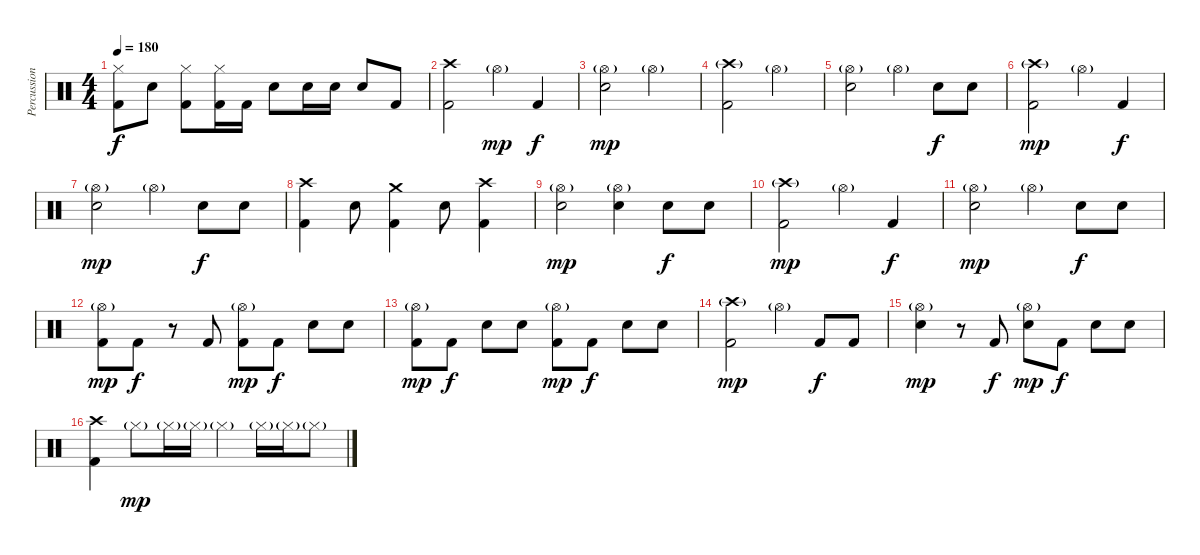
\track ("Percussion" "Percussion") {instrument percussion}
\staff {score}
\articulation defaults
\ts (4 4)
\tempo 180
\clef neutral
\ks c
("Hi-Hat (closed)" "Kick (hit) 2").8{dy f} "Electric Snare (hit)".8 ("Hi-Hat (closed)" "Kick (hit) 2").8 ("Hi-Hat (closed)" "Kick (hit) 2").16 "Kick (hit) 2".16 "Electric Snare (hit)".8 "Electric Snare (hit)".16 "Electric Snare (hit)".16 "Electric Snare (hit)".8 "Kick (hit) 2".8 |
("Crash high (hit)" "Kick (hit) 2").2 "Hi-Hat (open)"{g}.4{dy mp} "Kick (hit) 2".4{dy f} |
("Hi-Hat (open)"{g} "Electric Snare (hit)").2{dy mp} "Hi-Hat (open)"{g}.2 |
("Crash high (hit)"{g} "Kick (hit) 2").2 "Hi-Hat (open)"{g}.2 |
("Hi-Hat (open)"{g} "Electric Snare (hit)").2 "Hi-Hat (open)"{g}.4 "Electric Snare (hit)".8{dy f} "Electric Snare (hit)".8 |
("Crash high (hit)"{g} "Kick (hit) 2").2{dy mp} "Hi-Hat (open)"{g}.4 "Kick (hit) 2".4{dy f} |
("Hi-Hat (open)"{g} "Electric Snare (hit)").2{dy mp} "Hi-Hat (open)"{g}.4 "Electric Snare (hit)".8{dy f} "Electric Snare (hit)".8 |
("Crash high (hit)" "Kick (hit) 2").4 "Electric Snare (hit)".8 ("Crash medium (hit)" "Kick (hit) 2").4 "Electric Snare (hit)".8 ("Crash high (hit)" "Kick (hit) 2").4 |
("Hi-Hat (open)"{g} "Electric Snare (hit)").2{dy mp} ("Hi-Hat (open)"{g} "Electric Snare (hit)").4 "Electric Snare (hit)".8{dy f} "Electric Snare (hit)".8 |
("Crash high (hit)"{g} "Kick (hit) 2").2{dy mp} "Hi-Hat (open)"{g}.4 "Kick (hit) 2".4{dy f} |
("Hi-Hat (open)"{g} "Electric Snare (hit)").2{dy mp} "Hi-Hat (open)"{g}.4 "Electric Snare (hit)".8{dy f} "Electric Snare (hit)".8 |
("Hi-Hat (open)"{g} "Kick (hit) 2").8{dy mp} "Kick (hit) 2".8{dy f} r.8 "Kick (hit) 2".8 ("Hi-Hat (open)"{g} "Kick (hit) 2").8{dy mp} "Kick (hit) 2".8{dy f} "Electric Snare (hit)".8 "Electric Snare (hit)".8 |
("Hi-Hat (open)"{g} "Kick (hit) 2").8{dy mp} "Kick (hit) 2".8{dy f} "Electric Snare (hit)".8 "Electric Snare (hit)".8 ("Hi-Hat (open)"{g} "Kick (hit) 2").8{dy mp} "Kick (hit) 2".8{dy f} "Electric Snare (hit)".8 "Electric Snare (hit)".8 |
("Crash high (hit)"{g} "Kick (hit) 2").2{dy mp} "Hi-Hat (open)"{g}.4 "Kick (hit) 2".8{dy f} "Kick (hit) 2".8 |
("Hi-Hat (open)"{g} "Electric Snare (hit)").4{dy mp} r.8 "Kick (hit) 2".8{dy f} ("Hi-Hat (open)"{g} "Electric Snare (hit)").8{dy mp} "Kick (hit) 2".8{dy f} "Electric Snare (hit)".8 "Electric Snare (hit)".8 |
("Crash high (hit)" "Kick (hit) 2").4 "Hi-Hat (closed)"{g}.8{dy mp} "Hi-Hat (closed)"{g}.16 "Hi-Hat (closed)"{g}.16 "Hi-Hat (closed)"{g}.4 "Hi-Hat (closed)"{g}.16 "Hi-Hat (closed)"{g}.16 "Hi-Hat (closed)"{g}.8
